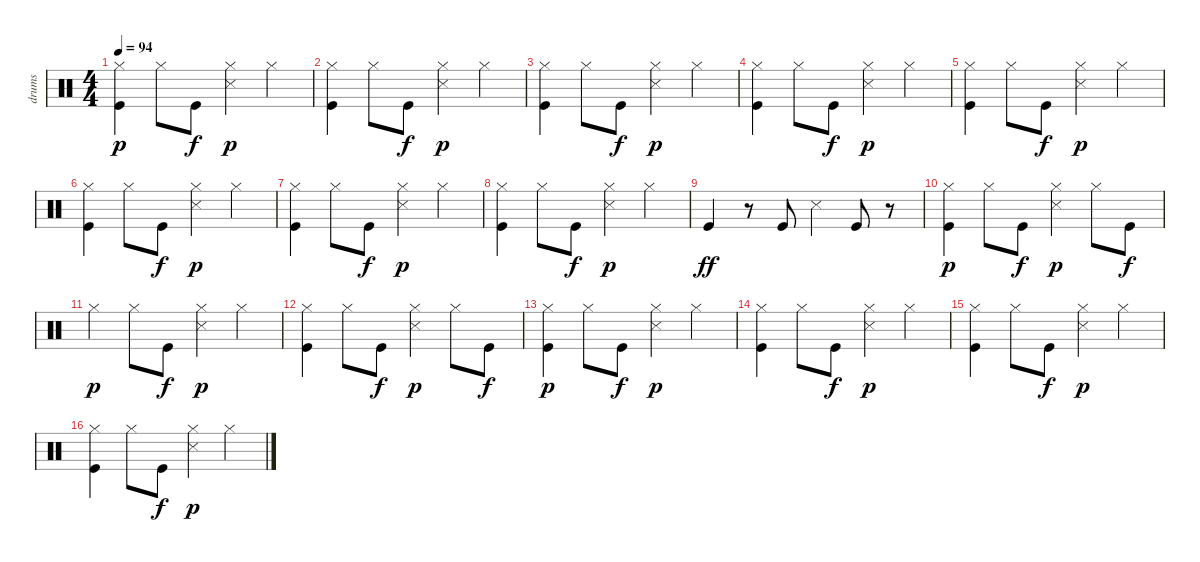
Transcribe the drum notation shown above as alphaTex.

\track ("drums" "drums") {instrument percussion}
\staff {score}
\articulation defaults
\ts (4 4)
\tempo 94
\clef neutral
\ks c
("Kick (hit)" "Hi-Hat (closed)").4{dy p} "Hi-Hat (closed)".8 "Kick (hit)".8{dy f} ("Hi-Hat (closed)" "Snare (side stick) 3").4{dy p} "Hi-Hat (closed)".4 |
("Kick (hit)" "Hi-Hat (closed)").4 "Hi-Hat (closed)".8 "Kick (hit)".8{dy f} ("Hi-Hat (closed)" "Snare (side stick) 3").4{dy p} "Hi-Hat (closed)".4 |
("Kick (hit)" "Hi-Hat (closed)").4 "Hi-Hat (closed)".8 "Kick (hit)".8{dy f} ("Hi-Hat (closed)" "Snare (side stick) 3").4{dy p} "Hi-Hat (closed)".4 |
("Kick (hit)" "Hi-Hat (closed)").4 "Hi-Hat (closed)".8 "Kick (hit)".8{dy f} ("Hi-Hat (closed)" "Snare (side stick) 3").4{dy p} "Hi-Hat (closed)".4 |
("Kick (hit)" "Hi-Hat (closed)").4 "Hi-Hat (closed)".8 "Kick (hit)".8{dy f} ("Hi-Hat (closed)" "Snare (side stick) 3").4{dy p} "Hi-Hat (closed)".4 |
("Kick (hit)" "Hi-Hat (closed)").4 "Hi-Hat (closed)".8 "Kick (hit)".8{dy f} ("Hi-Hat (closed)" "Snare (side stick) 3").4{dy p} "Hi-Hat (closed)".4 |
("Kick (hit)" "Hi-Hat (closed)").4 "Hi-Hat (closed)".8 "Kick (hit)".8{dy f} ("Hi-Hat (closed)" "Snare (side stick) 3").4{dy p} "Hi-Hat (closed)".4 |
("Kick (hit)" "Hi-Hat (closed)").4 "Hi-Hat (closed)".8 "Kick (hit)".8{dy f} ("Hi-Hat (closed)" "Snare (side stick) 3").4{dy p} "Hi-Hat (closed)".4 |
"Kick (hit)".4{dy ff} r.8 "Kick (hit)".8 "Snare (side stick) 3".4 "Kick (hit)".8 r.8 |
("Kick (hit)" "Hi-Hat (closed)").4{dy p} "Hi-Hat (closed)".8 "Kick (hit)".8{dy f} ("Hi-Hat (closed)" "Snare (side stick) 3").4{dy p} "Hi-Hat (closed)".8 "Kick (hit)".8{dy f} |
"Hi-Hat (closed)".4{dy p} "Hi-Hat (closed)".8 "Kick (hit)".8{dy f} ("Hi-Hat (closed)" "Snare (side stick) 3").4{dy p} "Hi-Hat (closed)".4 |
("Kick (hit)" "Hi-Hat (closed)").4 "Hi-Hat (closed)".8 "Kick (hit)".8{dy f} ("Hi-Hat (closed)" "Snare (side stick) 3").4{dy p} "Hi-Hat (closed)".8 "Kick (hit)".8{dy f} |
("Kick (hit)" "Hi-Hat (closed)").4{dy p} "Hi-Hat (closed)".8 "Kick (hit)".8{dy f} ("Hi-Hat (closed)" "Snare (side stick) 3").4{dy p} "Hi-Hat (closed)".4 |
("Kick (hit)" "Hi-Hat (closed)").4 "Hi-Hat (closed)".8 "Kick (hit)".8{dy f} ("Hi-Hat (closed)" "Snare (side stick) 3").4{dy p} "Hi-Hat (closed)".4 |
("Kick (hit)" "Hi-Hat (closed)").4 "Hi-Hat (closed)".8 "Kick (hit)".8{dy f} ("Hi-Hat (closed)" "Snare (side stick) 3").4{dy p} "Hi-Hat (closed)".4 |
("Kick (hit)" "Hi-Hat (closed)").4 "Hi-Hat (closed)".8 "Kick (hit)".8{dy f} ("Hi-Hat (closed)" "Snare (side stick) 3").4{dy p} "Hi-Hat (closed)".4
